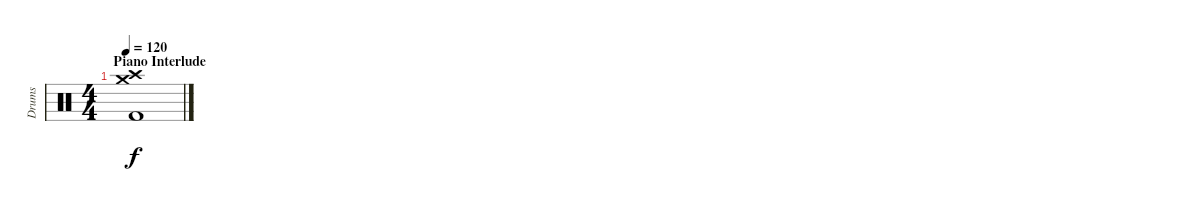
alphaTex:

\track ("Drums" "Drums") {instrument percussion}
\staff {score}
\articulation defaults
\ts (4 4)
\section ("" "Piano Interlude")
\tempo 120
\clef neutral
\ks c
("Crash high (hit)" "Crash medium (hit)" "Kick (hit) 2").1{dy f}
